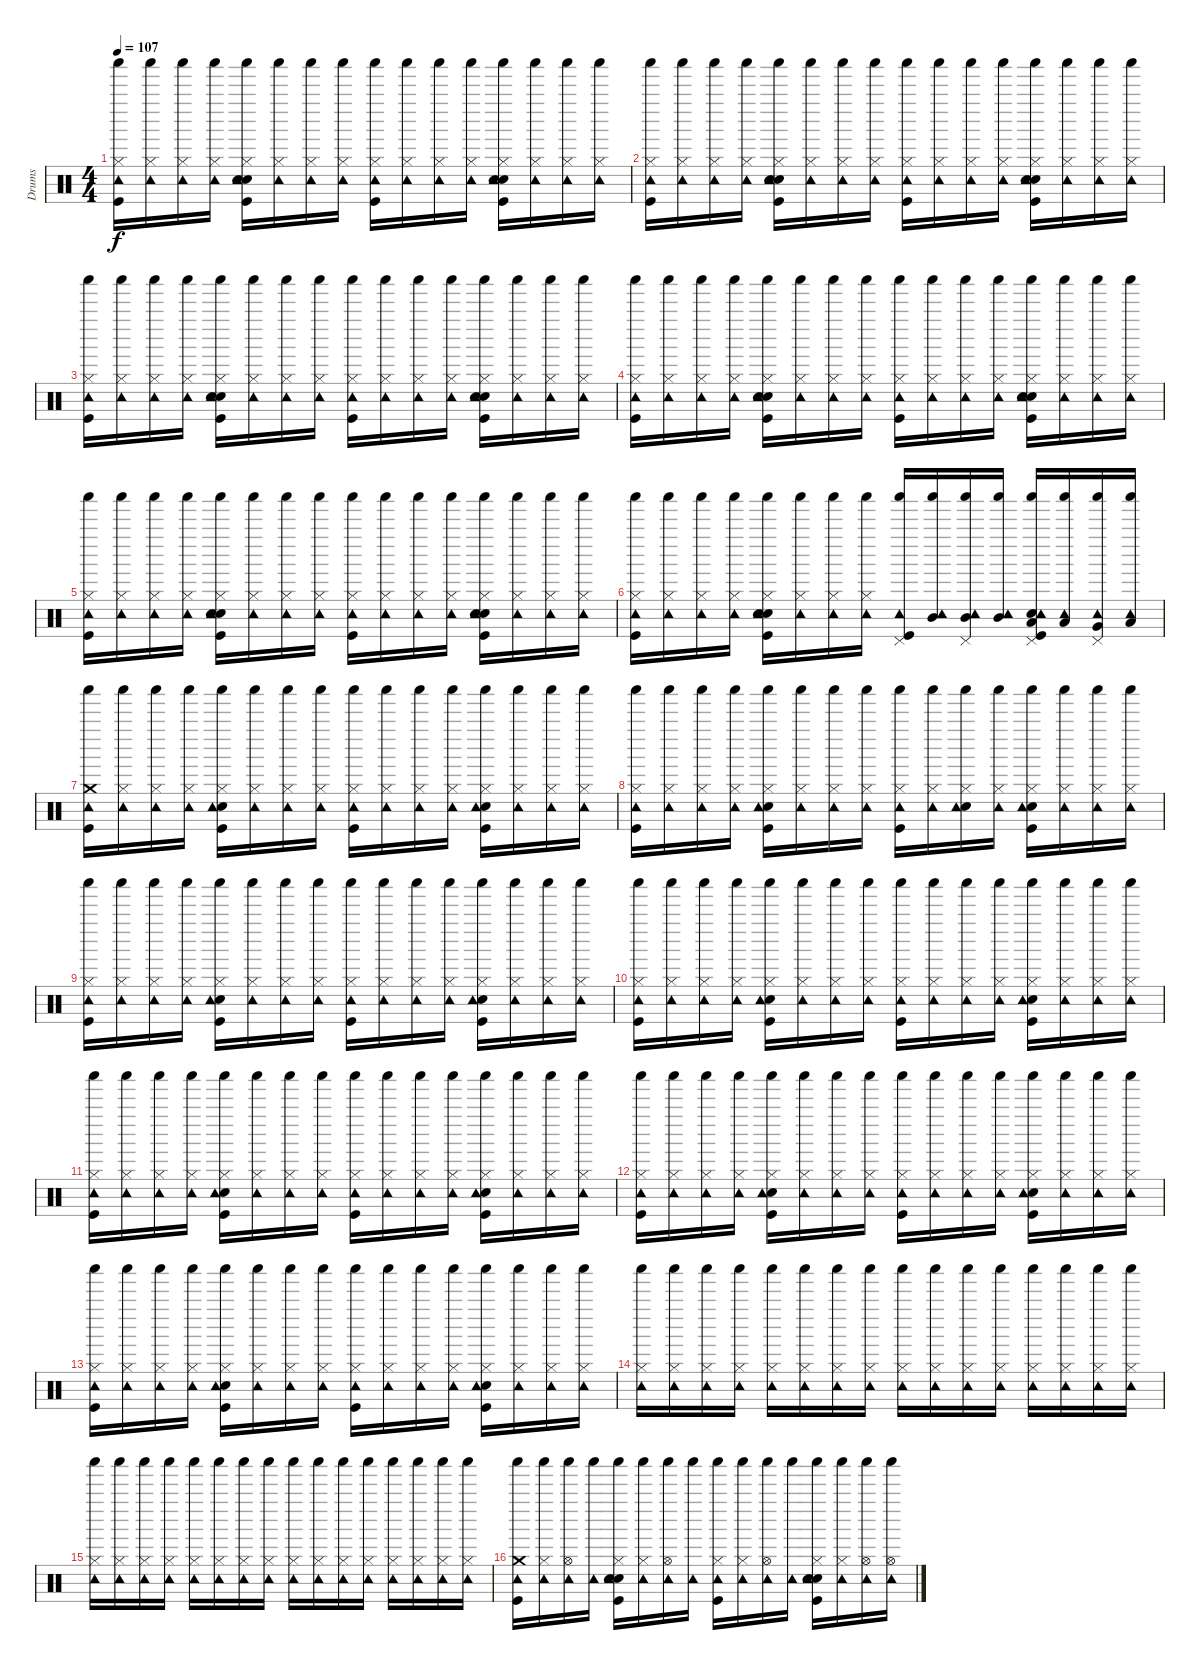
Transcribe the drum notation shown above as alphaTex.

\track ("Drums" "Drums") {instrument percussion}
\staff {score}
\articulation defaults
\ts (4 4)
\tempo 107
\clef neutral
\ks c
("Kick (hit)" "Hi-Hat (closed)" "Tambourine (hit)" "Shaker (hit)").16{dy f} ("Hi-Hat (closed)" "Tambourine (hit)" "Shaker (hit)").16 ("Hi-Hat (closed)" "Tambourine (hit)" "Shaker (hit)").16 ("Hi-Hat (closed)" "Tambourine (hit)" "Shaker (hit)").16 ("Kick (hit)" "Snare (hit) 2" "Hand Clap (hit)" "Hi-Hat (closed)" "Tambourine (hit)" "Shaker (hit)").16 ("Hi-Hat (closed)" "Tambourine (hit)" "Shaker (hit)").16 ("Hi-Hat (closed)" "Tambourine (hit)" "Shaker (hit)").16 ("Hi-Hat (closed)" "Tambourine (hit)" "Shaker (hit)").16 ("Kick (hit)" "Hi-Hat (closed)" "Tambourine (hit)" "Shaker (hit)").16 ("Hi-Hat (closed)" "Tambourine (hit)" "Shaker (hit)").16 ("Hi-Hat (closed)" "Tambourine (hit)" "Shaker (hit)").16 ("Hi-Hat (closed)" "Tambourine (hit)" "Shaker (hit)").16 ("Kick (hit)" "Snare (hit) 2" "Hand Clap (hit)" "Hi-Hat (closed)" "Tambourine (hit)" "Shaker (hit)").16 ("Hi-Hat (closed)" "Tambourine (hit)" "Shaker (hit)").16 ("Hi-Hat (closed)" "Tambourine (hit)" "Shaker (hit)").16 ("Hi-Hat (closed)" "Tambourine (hit)" "Shaker (hit)").16 |
("Kick (hit)" "Hi-Hat (closed)" "Tambourine (hit)" "Shaker (hit)").16 ("Hi-Hat (closed)" "Tambourine (hit)" "Shaker (hit)").16 ("Hi-Hat (closed)" "Tambourine (hit)" "Shaker (hit)").16 ("Hi-Hat (closed)" "Tambourine (hit)" "Shaker (hit)").16 ("Kick (hit)" "Snare (hit) 2" "Hand Clap (hit)" "Hi-Hat (closed)" "Tambourine (hit)" "Shaker (hit)").16 ("Hi-Hat (closed)" "Tambourine (hit)" "Shaker (hit)").16 ("Hi-Hat (closed)" "Tambourine (hit)" "Shaker (hit)").16 ("Hi-Hat (closed)" "Tambourine (hit)" "Shaker (hit)").16 ("Kick (hit)" "Hi-Hat (closed)" "Tambourine (hit)" "Shaker (hit)").16 ("Hi-Hat (closed)" "Tambourine (hit)" "Shaker (hit)").16 ("Hi-Hat (closed)" "Tambourine (hit)" "Shaker (hit)").16 ("Hi-Hat (closed)" "Tambourine (hit)" "Shaker (hit)").16 ("Kick (hit)" "Snare (hit) 2" "Hand Clap (hit)" "Hi-Hat (closed)" "Tambourine (hit)" "Shaker (hit)").16 ("Hi-Hat (closed)" "Tambourine (hit)" "Shaker (hit)").16 ("Hi-Hat (closed)" "Tambourine (hit)" "Shaker (hit)").16 ("Hi-Hat (closed)" "Tambourine (hit)" "Shaker (hit)").16 |
("Kick (hit)" "Hi-Hat (closed)" "Tambourine (hit)" "Shaker (hit)").16 ("Hi-Hat (closed)" "Tambourine (hit)" "Shaker (hit)").16 ("Hi-Hat (closed)" "Tambourine (hit)" "Shaker (hit)").16 ("Hi-Hat (closed)" "Tambourine (hit)" "Shaker (hit)").16 ("Kick (hit)" "Snare (hit) 2" "Hand Clap (hit)" "Hi-Hat (closed)" "Tambourine (hit)" "Shaker (hit)").16 ("Hi-Hat (closed)" "Tambourine (hit)" "Shaker (hit)").16 ("Hi-Hat (closed)" "Tambourine (hit)" "Shaker (hit)").16 ("Hi-Hat (closed)" "Tambourine (hit)" "Shaker (hit)").16 ("Kick (hit)" "Hi-Hat (closed)" "Tambourine (hit)" "Shaker (hit)").16 ("Hi-Hat (closed)" "Tambourine (hit)" "Shaker (hit)").16 ("Hi-Hat (closed)" "Tambourine (hit)" "Shaker (hit)").16 ("Hi-Hat (closed)" "Tambourine (hit)" "Shaker (hit)").16 ("Kick (hit)" "Snare (hit) 2" "Hand Clap (hit)" "Hi-Hat (closed)" "Tambourine (hit)" "Shaker (hit)").16 ("Hi-Hat (closed)" "Tambourine (hit)" "Shaker (hit)").16 ("Hi-Hat (closed)" "Tambourine (hit)" "Shaker (hit)").16 ("Hi-Hat (closed)" "Tambourine (hit)" "Shaker (hit)").16 |
("Kick (hit)" "Hi-Hat (closed)" "Tambourine (hit)" "Shaker (hit)").16 ("Hi-Hat (closed)" "Tambourine (hit)" "Shaker (hit)").16 ("Hi-Hat (closed)" "Tambourine (hit)" "Shaker (hit)").16 ("Hi-Hat (closed)" "Tambourine (hit)" "Shaker (hit)").16 ("Kick (hit)" "Snare (hit) 2" "Hand Clap (hit)" "Hi-Hat (closed)" "Tambourine (hit)" "Shaker (hit)").16 ("Hi-Hat (closed)" "Tambourine (hit)" "Shaker (hit)").16 ("Hi-Hat (closed)" "Tambourine (hit)" "Shaker (hit)").16 ("Hi-Hat (closed)" "Tambourine (hit)" "Shaker (hit)").16 ("Kick (hit)" "Hi-Hat (closed)" "Tambourine (hit)" "Shaker (hit)").16 ("Hi-Hat (closed)" "Tambourine (hit)" "Shaker (hit)").16 ("Hi-Hat (closed)" "Tambourine (hit)" "Shaker (hit)").16 ("Hi-Hat (closed)" "Tambourine (hit)" "Shaker (hit)").16 ("Kick (hit)" "Snare (hit) 2" "Hand Clap (hit)" "Hi-Hat (closed)" "Tambourine (hit)" "Shaker (hit)").16 ("Hi-Hat (closed)" "Tambourine (hit)" "Shaker (hit)").16 ("Hi-Hat (closed)" "Tambourine (hit)" "Shaker (hit)").16 ("Hi-Hat (closed)" "Tambourine (hit)" "Shaker (hit)").16 |
("Kick (hit)" "Hi-Hat (closed)" "Tambourine (hit)" "Shaker (hit)").16 ("Hi-Hat (closed)" "Tambourine (hit)" "Shaker (hit)").16 ("Hi-Hat (closed)" "Tambourine (hit)" "Shaker (hit)").16 ("Hi-Hat (closed)" "Tambourine (hit)" "Shaker (hit)").16 ("Kick (hit)" "Snare (hit) 2" "Hand Clap (hit)" "Hi-Hat (closed)" "Tambourine (hit)" "Shaker (hit)").16 ("Hi-Hat (closed)" "Tambourine (hit)" "Shaker (hit)").16 ("Hi-Hat (closed)" "Tambourine (hit)" "Shaker (hit)").16 ("Hi-Hat (closed)" "Tambourine (hit)" "Shaker (hit)").16 ("Kick (hit)" "Hi-Hat (closed)" "Tambourine (hit)" "Shaker (hit)").16 ("Hi-Hat (closed)" "Tambourine (hit)" "Shaker (hit)").16 ("Hi-Hat (closed)" "Tambourine (hit)" "Shaker (hit)").16 ("Hi-Hat (closed)" "Tambourine (hit)" "Shaker (hit)").16 ("Kick (hit)" "Snare (hit) 2" "Hand Clap (hit)" "Hi-Hat (closed)" "Tambourine (hit)" "Shaker (hit)").16 ("Hi-Hat (closed)" "Tambourine (hit)" "Shaker (hit)").16 ("Hi-Hat (closed)" "Tambourine (hit)" "Shaker (hit)").16 ("Hi-Hat (closed)" "Tambourine (hit)" "Shaker (hit)").16 |
("Kick (hit)" "Hi-Hat (closed)" "Tambourine (hit)" "Shaker (hit)").16 ("Hi-Hat (closed)" "Tambourine (hit)" "Shaker (hit)").16 ("Hi-Hat (closed)" "Tambourine (hit)" "Shaker (hit)").16 ("Hi-Hat (closed)" "Tambourine (hit)" "Shaker (hit)").16 ("Kick (hit)" "Snare (hit) 2" "Hand Clap (hit)" "Hi-Hat (closed)" "Tambourine (hit)" "Shaker (hit)").16 ("Hi-Hat (closed)" "Tambourine (hit)" "Shaker (hit)").16 ("Hi-Hat (closed)" "Tambourine (hit)" "Shaker (hit)").16 ("Hi-Hat (closed)" "Tambourine (hit)" "Shaker (hit)").16 ("Kick (hit)" "Pedal Hi-Hat (hit)" "Tambourine (hit)" "Shaker (hit)").16 ("Mid Tom (hit)" "Tambourine (hit)" "Shaker (hit)").16 ("Pedal Hi-Hat (hit)" "Mid Tom (hit)" "Tambourine (hit)" "Shaker (hit)").16 ("Mid Tom (hit)" "Tambourine (hit)" "Shaker (hit)").16 ("Kick (hit)" "Hand Clap (hit)" "Pedal Hi-Hat (hit)" "Low Tom (hit)" "Tambourine (hit)" "Shaker (hit)").16 ("Low Tom (hit)" "Tambourine (hit)" "Shaker (hit)").16 ("Very Low Tom (hit)" "Pedal Hi-Hat (hit)" "Tambourine (hit)" "Shaker (hit)").16 ("Low Floor Tom (hit)" "Tambourine (hit)" "Shaker (hit)").16 |
("Kick (hit)" "Tambourine (hit)" "Crash medium (hit)" "Shaker (hit)").16 ("Hi-Hat (closed)" "Tambourine (hit)" "Shaker (hit)").16 ("Hi-Hat (closed)" "Tambourine (hit)" "Shaker (hit)").16 ("Hi-Hat (closed)" "Tambourine (hit)" "Shaker (hit)").16 ("Kick (hit)" "Hand Clap (hit)" "Hi-Hat (closed)" "Tambourine (hit)" "Shaker (hit)").16 ("Hi-Hat (closed)" "Tambourine (hit)" "Shaker (hit)").16 ("Hi-Hat (closed)" "Tambourine (hit)" "Shaker (hit)").16 ("Hi-Hat (closed)" "Tambourine (hit)" "Shaker (hit)").16 ("Kick (hit)" "Hi-Hat (closed)" "Tambourine (hit)" "Shaker (hit)").16 ("Hi-Hat (closed)" "Tambourine (hit)" "Shaker (hit)").16 ("Hi-Hat (closed)" "Tambourine (hit)" "Shaker (hit)").16 ("Hi-Hat (closed)" "Tambourine (hit)" "Shaker (hit)").16 ("Kick (hit)" "Hand Clap (hit)" "Hi-Hat (closed)" "Tambourine (hit)" "Shaker (hit)").16 ("Hi-Hat (closed)" "Tambourine (hit)" "Shaker (hit)").16 ("Hi-Hat (closed)" "Tambourine (hit)" "Shaker (hit)").16 ("Hi-Hat (closed)" "Tambourine (hit)" "Shaker (hit)").16 |
("Kick (hit)" "Hi-Hat (closed)" "Tambourine (hit)" "Shaker (hit)").16 ("Hi-Hat (closed)" "Tambourine (hit)" "Shaker (hit)").16 ("Hi-Hat (closed)" "Tambourine (hit)" "Shaker (hit)").16 ("Hi-Hat (closed)" "Tambourine (hit)" "Shaker (hit)").16 ("Kick (hit)" "Hand Clap (hit)" "Hi-Hat (closed)" "Tambourine (hit)" "Shaker (hit)").16 ("Hi-Hat (closed)" "Tambourine (hit)" "Shaker (hit)").16 ("Hi-Hat (closed)" "Tambourine (hit)" "Shaker (hit)").16 ("Hi-Hat (closed)" "Tambourine (hit)" "Shaker (hit)").16 ("Kick (hit)" "Hi-Hat (closed)" "Tambourine (hit)" "Shaker (hit)").16 ("Hi-Hat (closed)" "Tambourine (hit)" "Shaker (hit)").16 ("Hand Clap (hit)" "Hi-Hat (closed)" "Tambourine (hit)" "Shaker (hit)").16 ("Hi-Hat (closed)" "Tambourine (hit)" "Shaker (hit)").16 ("Kick (hit)" "Hand Clap (hit)" "Hi-Hat (closed)" "Tambourine (hit)" "Shaker (hit)").16 ("Hi-Hat (closed)" "Tambourine (hit)" "Shaker (hit)").16 ("Hi-Hat (closed)" "Tambourine (hit)" "Shaker (hit)").16 ("Hi-Hat (closed)" "Tambourine (hit)" "Shaker (hit)").16 |
("Kick (hit)" "Hi-Hat (closed)" "Tambourine (hit)" "Shaker (hit)").16 ("Hi-Hat (closed)" "Tambourine (hit)" "Shaker (hit)").16 ("Hi-Hat (closed)" "Tambourine (hit)" "Shaker (hit)").16 ("Hi-Hat (closed)" "Tambourine (hit)" "Shaker (hit)").16 ("Kick (hit)" "Hand Clap (hit)" "Hi-Hat (closed)" "Tambourine (hit)" "Shaker (hit)").16 ("Hi-Hat (closed)" "Tambourine (hit)" "Shaker (hit)").16 ("Hi-Hat (closed)" "Tambourine (hit)" "Shaker (hit)").16 ("Hi-Hat (closed)" "Tambourine (hit)" "Shaker (hit)").16 ("Kick (hit)" "Hi-Hat (closed)" "Tambourine (hit)" "Shaker (hit)").16 ("Hi-Hat (closed)" "Tambourine (hit)" "Shaker (hit)").16 ("Hi-Hat (closed)" "Tambourine (hit)" "Shaker (hit)").16 ("Hi-Hat (closed)" "Tambourine (hit)" "Shaker (hit)").16 ("Kick (hit)" "Hand Clap (hit)" "Hi-Hat (closed)" "Tambourine (hit)" "Shaker (hit)").16 ("Hi-Hat (closed)" "Tambourine (hit)" "Shaker (hit)").16 ("Hi-Hat (closed)" "Tambourine (hit)" "Shaker (hit)").16 ("Hi-Hat (closed)" "Tambourine (hit)" "Shaker (hit)").16 |
("Kick (hit)" "Hi-Hat (closed)" "Tambourine (hit)" "Shaker (hit)").16 ("Hi-Hat (closed)" "Tambourine (hit)" "Shaker (hit)").16 ("Hi-Hat (closed)" "Tambourine (hit)" "Shaker (hit)").16 ("Hi-Hat (closed)" "Tambourine (hit)" "Shaker (hit)").16 ("Kick (hit)" "Hand Clap (hit)" "Hi-Hat (closed)" "Tambourine (hit)" "Shaker (hit)").16 ("Hi-Hat (closed)" "Tambourine (hit)" "Shaker (hit)").16 ("Hi-Hat (closed)" "Tambourine (hit)" "Shaker (hit)").16 ("Hi-Hat (closed)" "Tambourine (hit)" "Shaker (hit)").16 ("Kick (hit)" "Hi-Hat (closed)" "Tambourine (hit)" "Shaker (hit)").16 ("Hi-Hat (closed)" "Tambourine (hit)" "Shaker (hit)").16 ("Hi-Hat (closed)" "Tambourine (hit)" "Shaker (hit)").16 ("Hi-Hat (closed)" "Tambourine (hit)" "Shaker (hit)").16 ("Kick (hit)" "Hand Clap (hit)" "Hi-Hat (closed)" "Tambourine (hit)" "Shaker (hit)").16 ("Hi-Hat (closed)" "Tambourine (hit)" "Shaker (hit)").16 ("Hi-Hat (closed)" "Tambourine (hit)" "Shaker (hit)").16 ("Hi-Hat (closed)" "Tambourine (hit)" "Shaker (hit)").16 |
("Kick (hit)" "Hi-Hat (closed)" "Tambourine (hit)" "Shaker (hit)").16 ("Hi-Hat (closed)" "Tambourine (hit)" "Shaker (hit)").16 ("Hi-Hat (closed)" "Tambourine (hit)" "Shaker (hit)").16 ("Hi-Hat (closed)" "Tambourine (hit)" "Shaker (hit)").16 ("Kick (hit)" "Hand Clap (hit)" "Hi-Hat (closed)" "Tambourine (hit)" "Shaker (hit)").16 ("Hi-Hat (closed)" "Tambourine (hit)" "Shaker (hit)").16 ("Hi-Hat (closed)" "Tambourine (hit)" "Shaker (hit)").16 ("Hi-Hat (closed)" "Tambourine (hit)" "Shaker (hit)").16 ("Kick (hit)" "Hi-Hat (closed)" "Tambourine (hit)" "Shaker (hit)").16 ("Hi-Hat (closed)" "Tambourine (hit)" "Shaker (hit)").16 ("Hi-Hat (closed)" "Tambourine (hit)" "Shaker (hit)").16 ("Hi-Hat (closed)" "Tambourine (hit)" "Shaker (hit)").16 ("Kick (hit)" "Hand Clap (hit)" "Hi-Hat (closed)" "Tambourine (hit)" "Shaker (hit)").16 ("Hi-Hat (closed)" "Tambourine (hit)" "Shaker (hit)").16 ("Hi-Hat (closed)" "Tambourine (hit)" "Shaker (hit)").16 ("Hi-Hat (closed)" "Tambourine (hit)" "Shaker (hit)").16 |
("Kick (hit)" "Hi-Hat (closed)" "Tambourine (hit)" "Shaker (hit)").16 ("Hi-Hat (closed)" "Tambourine (hit)" "Shaker (hit)").16 ("Hi-Hat (closed)" "Tambourine (hit)" "Shaker (hit)").16 ("Hi-Hat (closed)" "Tambourine (hit)" "Shaker (hit)").16 ("Kick (hit)" "Hand Clap (hit)" "Hi-Hat (closed)" "Tambourine (hit)" "Shaker (hit)").16 ("Hi-Hat (closed)" "Tambourine (hit)" "Shaker (hit)").16 ("Hi-Hat (closed)" "Tambourine (hit)" "Shaker (hit)").16 ("Hi-Hat (closed)" "Tambourine (hit)" "Shaker (hit)").16 ("Kick (hit)" "Hi-Hat (closed)" "Tambourine (hit)" "Shaker (hit)").16 ("Hi-Hat (closed)" "Tambourine (hit)" "Shaker (hit)").16 ("Hi-Hat (closed)" "Tambourine (hit)" "Shaker (hit)").16 ("Hi-Hat (closed)" "Tambourine (hit)" "Shaker (hit)").16 ("Kick (hit)" "Hand Clap (hit)" "Hi-Hat (closed)" "Tambourine (hit)" "Shaker (hit)").16 ("Hi-Hat (closed)" "Tambourine (hit)" "Shaker (hit)").16 ("Hi-Hat (closed)" "Tambourine (hit)" "Shaker (hit)").16 ("Hi-Hat (closed)" "Tambourine (hit)" "Shaker (hit)").16 |
("Kick (hit)" "Hi-Hat (closed)" "Tambourine (hit)" "Shaker (hit)").16 ("Hi-Hat (closed)" "Tambourine (hit)" "Shaker (hit)").16 ("Hi-Hat (closed)" "Tambourine (hit)" "Shaker (hit)").16 ("Hi-Hat (closed)" "Tambourine (hit)" "Shaker (hit)").16 ("Kick (hit)" "Hand Clap (hit)" "Hi-Hat (closed)" "Tambourine (hit)" "Shaker (hit)").16 ("Hi-Hat (closed)" "Tambourine (hit)" "Shaker (hit)").16 ("Hi-Hat (closed)" "Tambourine (hit)" "Shaker (hit)").16 ("Hi-Hat (closed)" "Tambourine (hit)" "Shaker (hit)").16 ("Kick (hit)" "Hi-Hat (closed)" "Tambourine (hit)" "Shaker (hit)").16 ("Hi-Hat (closed)" "Tambourine (hit)" "Shaker (hit)").16 ("Hi-Hat (closed)" "Tambourine (hit)" "Shaker (hit)").16 ("Hi-Hat (closed)" "Tambourine (hit)" "Shaker (hit)").16 ("Kick (hit)" "Hand Clap (hit)" "Hi-Hat (closed)" "Tambourine (hit)" "Shaker (hit)").16 ("Hi-Hat (closed)" "Tambourine (hit)" "Shaker (hit)").16 ("Hi-Hat (closed)" "Tambourine (hit)" "Shaker (hit)").16 ("Hi-Hat (closed)" "Tambourine (hit)" "Shaker (hit)").16 |
("Hi-Hat (closed)" "Tambourine (hit)" "Shaker (hit)").16 ("Hi-Hat (closed)" "Tambourine (hit)" "Shaker (hit)").16 ("Hi-Hat (closed)" "Tambourine (hit)" "Shaker (hit)").16 ("Hi-Hat (closed)" "Tambourine (hit)" "Shaker (hit)").16 ("Hi-Hat (closed)" "Tambourine (hit)" "Shaker (hit)").16 ("Hi-Hat (closed)" "Tambourine (hit)" "Shaker (hit)").16 ("Hi-Hat (closed)" "Tambourine (hit)" "Shaker (hit)").16 ("Hi-Hat (closed)" "Tambourine (hit)" "Shaker (hit)").16 ("Hi-Hat (closed)" "Tambourine (hit)" "Shaker (hit)").16 ("Hi-Hat (closed)" "Tambourine (hit)" "Shaker (hit)").16 ("Hi-Hat (closed)" "Tambourine (hit)" "Shaker (hit)").16 ("Hi-Hat (closed)" "Tambourine (hit)" "Shaker (hit)").16 ("Hi-Hat (closed)" "Tambourine (hit)" "Shaker (hit)").16 ("Hi-Hat (closed)" "Tambourine (hit)" "Shaker (hit)").16 ("Hi-Hat (closed)" "Tambourine (hit)" "Shaker (hit)").16 ("Hi-Hat (closed)" "Tambourine (hit)" "Shaker (hit)").16 |
("Hi-Hat (closed)" "Tambourine (hit)" "Shaker (hit)").16 ("Hi-Hat (closed)" "Tambourine (hit)" "Shaker (hit)").16 ("Hi-Hat (closed)" "Tambourine (hit)" "Shaker (hit)").16 ("Hi-Hat (closed)" "Tambourine (hit)" "Shaker (hit)").16 ("Hi-Hat (closed)" "Tambourine (hit)" "Shaker (hit)").16 ("Hi-Hat (closed)" "Tambourine (hit)" "Shaker (hit)").16 ("Hi-Hat (closed)" "Tambourine (hit)" "Shaker (hit)").16 ("Hi-Hat (closed)" "Tambourine (hit)" "Shaker (hit)").16 ("Hi-Hat (closed)" "Tambourine (hit)" "Shaker (hit)").16 ("Hi-Hat (closed)" "Tambourine (hit)" "Shaker (hit)").16 ("Hi-Hat (closed)" "Tambourine (hit)" "Shaker (hit)").16 ("Hi-Hat (closed)" "Tambourine (hit)" "Shaker (hit)").16 ("Hi-Hat (closed)" "Tambourine (hit)" "Shaker (hit)").16 ("Hi-Hat (closed)" "Tambourine (hit)" "Shaker (hit)").16 ("Hi-Hat (closed)" "Tambourine (hit)" "Shaker (hit)").16 ("Hi-Hat (closed)" "Tambourine (hit)" "Shaker (hit)").16 |
("Kick (hit)" "Tambourine (hit)" "Crash medium (hit)" "Shaker (hit)").16 ("Hi-Hat (closed)" "Tambourine (hit)" "Shaker (hit)").16 ("Hi-Hat (open)" "Tambourine (hit)" "Shaker (hit)").16 ("Tambourine (hit)" "Shaker (hit)").16 ("Kick (hit)" "Snare (hit) 2" "Hand Clap (hit)" "Hi-Hat (closed)" "Tambourine (hit)" "Shaker (hit)").16 ("Hi-Hat (closed)" "Tambourine (hit)" "Shaker (hit)").16 ("Hi-Hat (open)" "Tambourine (hit)" "Shaker (hit)").16 ("Tambourine (hit)" "Shaker (hit)").16 ("Kick (hit)" "Hi-Hat (closed)" "Tambourine (hit)" "Shaker (hit)").16 ("Hi-Hat (closed)" "Tambourine (hit)" "Shaker (hit)").16 ("Hi-Hat (open)" "Tambourine (hit)" "Shaker (hit)").16 ("Tambourine (hit)" "Shaker (hit)").16 ("Kick (hit)" "Snare (hit) 2" "Hand Clap (hit)" "Hi-Hat (closed)" "Tambourine (hit)" "Shaker (hit)").16 ("Hi-Hat (closed)" "Tambourine (hit)" "Shaker (hit)").16 ("Hi-Hat (open)" "Tambourine (hit)" "Shaker (hit)").16 ("Hi-Hat (open)" "Tambourine (hit)" "Shaker (hit)").16
